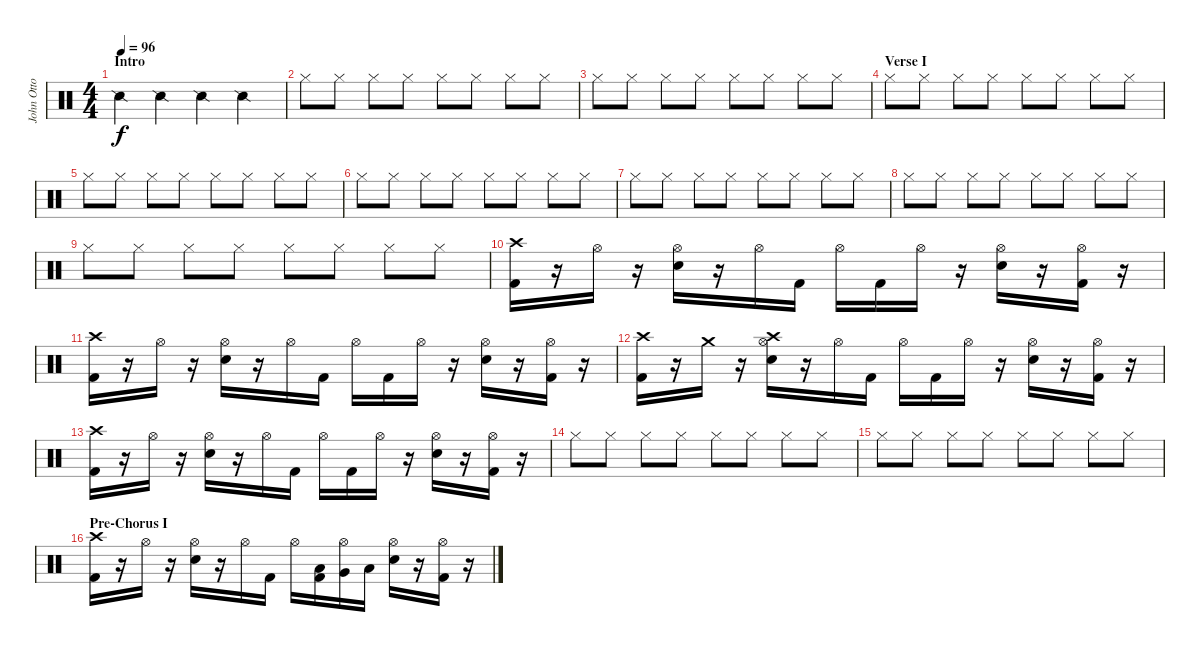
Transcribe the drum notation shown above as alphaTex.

\track ("John Otto - Drums" "John Otto ") {instrument percussion}
\staff {score}
\articulation defaults
\ts (4 4)
\section ("" "Intro")
\tempo 96
\clef neutral
\ks c "Snare (side stick) 2".4{dy f} "Snare (side stick) 2".4 "Snare (side stick) 2".4 "Snare (side stick) 2".4
|
"Hi-Hat (closed)".8 "Hi-Hat (closed)".8 "Hi-Hat (closed)".8 "Hi-Hat (closed)".8 "Hi-Hat (closed)".8 "Hi-Hat (closed)".8 "Hi-Hat (closed)".8 "Hi-Hat (closed)".8 |
"Hi-Hat (closed)".8 "Hi-Hat (closed)".8 "Hi-Hat (closed)".8 "Hi-Hat (closed)".8 "Hi-Hat (closed)".8 "Hi-Hat (closed)".8 "Hi-Hat (closed)".8 "Hi-Hat (closed)".8 |
\section ("" "Verse I")
"Hi-Hat (closed)".8 "Hi-Hat (closed)".8 "Hi-Hat (closed)".8 "Hi-Hat (closed)".8 "Hi-Hat (closed)".8 "Hi-Hat (closed)".8 "Hi-Hat (closed)".8 "Hi-Hat (closed)".8 |
"Hi-Hat (closed)".8 "Hi-Hat (closed)".8 "Hi-Hat (closed)".8 "Hi-Hat (closed)".8 "Hi-Hat (closed)".8 "Hi-Hat (closed)".8 "Hi-Hat (closed)".8 "Hi-Hat (closed)".8 |
"Hi-Hat (closed)".8 "Hi-Hat (closed)".8 "Hi-Hat (closed)".8 "Hi-Hat (closed)".8 "Hi-Hat (closed)".8 "Hi-Hat (closed)".8 "Hi-Hat (closed)".8 "Hi-Hat (closed)".8 |
"Hi-Hat (closed)".8 "Hi-Hat (closed)".8 "Hi-Hat (closed)".8 "Hi-Hat (closed)".8 "Hi-Hat (closed)".8 "Hi-Hat (closed)".8 "Hi-Hat (closed)".8 "Hi-Hat (closed)".8 |
"Hi-Hat (closed)".8 "Hi-Hat (closed)".8 "Hi-Hat (closed)".8 "Hi-Hat (closed)".8 "Hi-Hat (closed)".8 "Hi-Hat (closed)".8 "Hi-Hat (closed)".8 "Hi-Hat (closed)".8 |
"Hi-Hat (closed)".8 "Hi-Hat (closed)".8 "Hi-Hat (closed)".8 "Hi-Hat (closed)".8 "Hi-Hat (closed)".8 "Hi-Hat (closed)".8 "Hi-Hat (closed)".8 "Hi-Hat (closed)".8 |
("Crash high (hit)" "Kick (hit) 2").16 r.16 "Hi-Hat (open)".16 r.16 ("Hi-Hat (open)" "Snare (hit) 2").16 r.16 "Hi-Hat (open)".16 "Kick (hit) 2".16 "Hi-Hat (open)".16 "Kick (hit) 2".16 "Hi-Hat (open)".16 r.16 ("Hi-Hat (open)" "Snare (hit) 2").16 r.16 ("Hi-Hat (open)" "Kick (hit) 2").16 r.16 |
("Crash high (hit)" "Kick (hit) 2").16 r.16 "Hi-Hat (open)".16 r.16 ("Hi-Hat (open)" "Snare (hit) 2").16 r.16 "Hi-Hat (open)".16 "Kick (hit) 2".16 "Hi-Hat (open)".16 "Kick (hit) 2".16 "Hi-Hat (open)".16 r.16 ("Hi-Hat (open)" "Snare (hit) 2").16 r.16 ("Hi-Hat (open)" "Kick (hit) 2").16 r.16 |
("Crash high (hit)" "Kick (hit) 2").16 r.16 "Crash medium (hit)".16 r.16 ("Crash high (hit)" "Hi-Hat (open)" "Snare (hit) 2").16 r.16 "Hi-Hat (open)".16 "Kick (hit) 2".16 "Hi-Hat (open)".16 "Kick (hit) 2".16 "Hi-Hat (open)".16 r.16 ("Hi-Hat (open)" "Snare (hit) 2").16 r.16 ("Hi-Hat (open)" "Kick (hit) 2").16 r.16 |
("Crash high (hit)" "Kick (hit) 2").16 r.16 "Hi-Hat (open)".16 r.16 ("Hi-Hat (open)" "Snare (hit) 2").16 r.16 "Hi-Hat (open)".16 "Kick (hit) 2".16 "Hi-Hat (open)".16 "Kick (hit) 2".16 "Hi-Hat (open)".16 r.16 ("Hi-Hat (open)" "Snare (hit) 2").16 r.16 ("Hi-Hat (open)" "Kick (hit) 2").16 r.16 |
"Hi-Hat (closed)".8 "Hi-Hat (closed)".8 "Hi-Hat (closed)".8 "Hi-Hat (closed)".8 "Hi-Hat (closed)".8 "Hi-Hat (closed)".8 "Hi-Hat (closed)".8 "Hi-Hat (closed)".8 |
"Hi-Hat (closed)".8 "Hi-Hat (closed)".8 "Hi-Hat (closed)".8 "Hi-Hat (closed)".8 "Hi-Hat (closed)".8 "Hi-Hat (closed)".8 "Hi-Hat (closed)".8 "Hi-Hat (closed)".8 |
\section ("" "Pre-Chorus I")
("Crash high (hit)" "Kick (hit) 2").16 r.16 "Hi-Hat (open)".16 r.16 ("Hi-Hat (open)" "Snare (hit) 2").16 r.16 "Hi-Hat (open)".16 "Kick (hit) 2".16 "Hi-Hat (open)".16 ("Low Tom (hit)" "Kick (hit) 2").16 ("Hi-Hat (open)" "Very Low Tom (hit)").16 "Low Floor Tom (hit)".16 ("Hi-Hat (open)" "Snare (hit) 2").16 r.16 ("Hi-Hat (open)" "Kick (hit) 2").16 r.16
